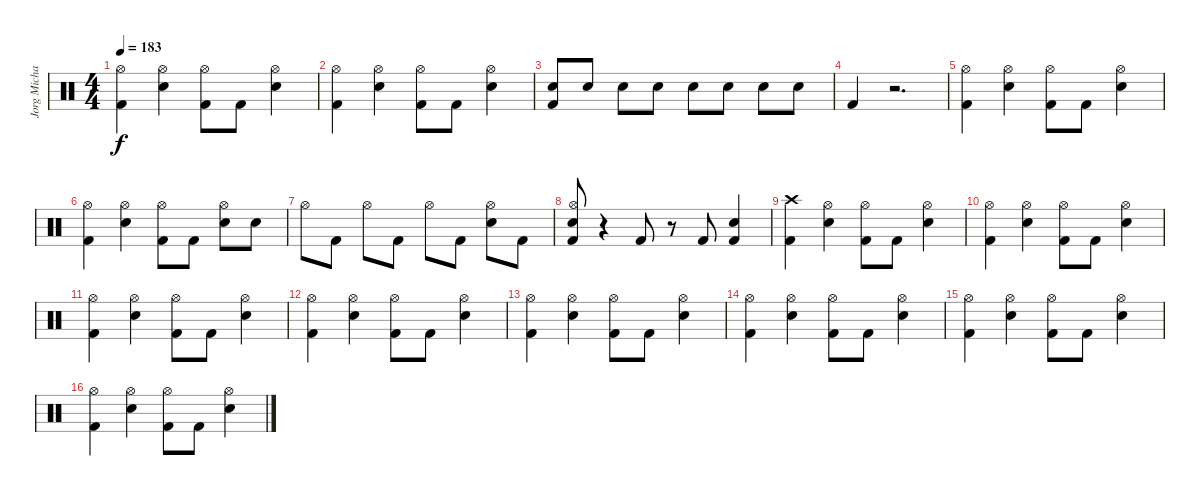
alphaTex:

\track ("Jorg Michael" "Jorg Micha") {instrument percussion}
\staff {score}
\articulation defaults
\ts (4 4)
\tempo 183
\clef neutral
\ks c
("Kick (hit) 2" "Hi-Hat (open)").4{dy f} ("Snare (hit) 2" "Hi-Hat (open)").4 ("Kick (hit) 2" "Hi-Hat (open)").8 "Kick (hit) 2".8 ("Snare (hit) 2" "Hi-Hat (open)").4 |
("Kick (hit) 2" "Hi-Hat (open)").4 ("Snare (hit) 2" "Hi-Hat (open)").4 ("Kick (hit) 2" "Hi-Hat (open)").8 "Kick (hit) 2".8 ("Snare (hit) 2" "Hi-Hat (open)").4 |
("Snare (hit) 2" "Kick (hit) 2").8 "Snare (hit) 2".8 "Snare (hit) 2".8 "Snare (hit) 2".8 "Snare (hit) 2".8 "Snare (hit) 2".8 "Snare (hit) 2".8 "Snare (hit) 2".8 |
"Kick (hit) 2".4 r.2{d} |
("Hi-Hat (open)" "Kick (hit) 2").4 ("Hi-Hat (open)" "Snare (hit) 2").4 ("Hi-Hat (open)" "Kick (hit) 2").8 "Kick (hit) 2".8 ("Hi-Hat (open)" "Snare (hit) 2").4 |
("Hi-Hat (open)" "Kick (hit) 2").4 ("Hi-Hat (open)" "Snare (hit) 2").4 ("Hi-Hat (open)" "Kick (hit) 2").8 "Kick (hit) 2".8 ("Hi-Hat (open)" "Snare (hit) 2").8 "Snare (hit) 2".8 |
"Hi-Hat (open)".8 "Kick (hit) 2".8 "Hi-Hat (open)".8 "Kick (hit) 2".8 "Hi-Hat (open)".8 "Kick (hit) 2".8 ("Snare (hit) 2" "Hi-Hat (open)").8 "Kick (hit) 2".8 |
("Kick (hit) 2" "Snare (hit) 2" "Hi-Hat (open)").8 r.4 "Kick (hit) 2".8 r.8 "Kick (hit) 2".8 ("Kick (hit) 2" "Snare (hit) 2").4 |
("Kick (hit) 2" "Crash high (hit)").4 ("Snare (hit) 2" "Hi-Hat (open)").4 ("Kick (hit) 2" "Hi-Hat (open)").8 "Kick (hit) 2".8 ("Snare (hit) 2" "Hi-Hat (open)").4 |
("Kick (hit) 2" "Hi-Hat (open)").4 ("Snare (hit) 2" "Hi-Hat (open)").4 ("Kick (hit) 2" "Hi-Hat (open)").8 "Kick (hit) 2".8 ("Snare (hit) 2" "Hi-Hat (open)").4 |
("Kick (hit) 2" "Hi-Hat (open)").4 ("Snare (hit) 2" "Hi-Hat (open)").4 ("Kick (hit) 2" "Hi-Hat (open)").8 "Kick (hit) 2".8 ("Snare (hit) 2" "Hi-Hat (open)").4 |
("Kick (hit) 2" "Hi-Hat (open)").4 ("Snare (hit) 2" "Hi-Hat (open)").4 ("Kick (hit) 2" "Hi-Hat (open)").8 "Kick (hit) 2".8 ("Snare (hit) 2" "Hi-Hat (open)").4 |
("Kick (hit) 2" "Hi-Hat (open)").4 ("Snare (hit) 2" "Hi-Hat (open)").4 ("Kick (hit) 2" "Hi-Hat (open)").8 "Kick (hit) 2".8 ("Snare (hit) 2" "Hi-Hat (open)").4 |
("Kick (hit) 2" "Hi-Hat (open)").4 ("Snare (hit) 2" "Hi-Hat (open)").4 ("Kick (hit) 2" "Hi-Hat (open)").8 "Kick (hit) 2".8 ("Snare (hit) 2" "Hi-Hat (open)").4 |
("Kick (hit) 2" "Hi-Hat (open)").4 ("Snare (hit) 2" "Hi-Hat (open)").4 ("Kick (hit) 2" "Hi-Hat (open)").8 "Kick (hit) 2".8 ("Snare (hit) 2" "Hi-Hat (open)").4 |
("Kick (hit) 2" "Hi-Hat (open)").4 ("Snare (hit) 2" "Hi-Hat (open)").4 ("Kick (hit) 2" "Hi-Hat (open)").8 "Kick (hit) 2".8 ("Snare (hit) 2" "Hi-Hat (open)").4
